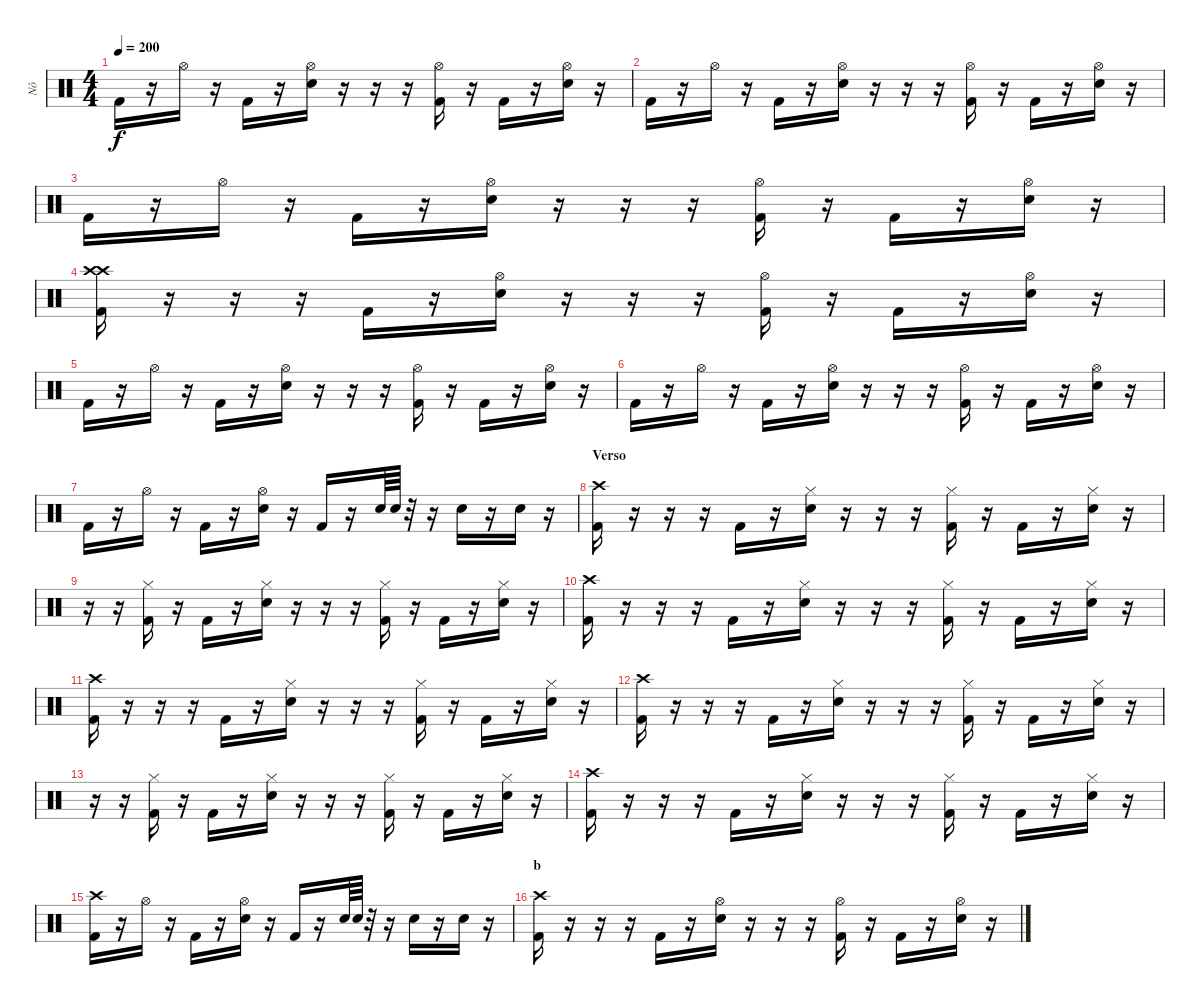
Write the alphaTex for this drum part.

\track ("Nô" "Nô") {instrument percussion}
\staff {score}
\articulation defaults
\ts (4 4)
\tempo 200
\clef neutral
\ks c "Kick (hit) 2".16{dy f}
r.16 "Hi-Hat (open)".16 r.16 "Kick (hit) 2".16 r.16 ("Hi-Hat (open)" "Electric Snare (hit)").16 r.16 r.16 r.16 ("Hi-Hat (open)" "Kick (hit) 2").16 r.16 "Kick (hit) 2".16 r.16 ("Hi-Hat (open)" "Electric Snare (hit)").16 r.16 |
"Kick (hit) 2".16 r.16 "Hi-Hat (open)".16 r.16 "Kick (hit) 2".16 r.16 ("Hi-Hat (open)" "Electric Snare (hit)").16 r.16 r.16 r.16 ("Hi-Hat (open)" "Kick (hit) 2").16 r.16 "Kick (hit) 2".16 r.16 ("Hi-Hat (open)" "Electric Snare (hit)").16 r.16 |
"Kick (hit) 2".16 r.16 "Hi-Hat (open)".16 r.16 "Kick (hit) 2".16 r.16 ("Hi-Hat (open)" "Electric Snare (hit)").16 r.16 r.16 r.16 ("Hi-Hat (open)" "Kick (hit) 2").16 r.16 "Kick (hit) 2".16 r.16 ("Hi-Hat (open)" "Electric Snare (hit)").16 r.16 |
("Crash high (hit)" "Crash high (hit)" "Kick (hit) 2").16 r.16 r.16 r.16 "Kick (hit) 2".16 r.16 ("Hi-Hat (open)" "Electric Snare (hit)").16 r.16 r.16 r.16 ("Hi-Hat (open)" "Kick (hit) 2").16 r.16 "Kick (hit) 2".16 r.16 ("Hi-Hat (open)" "Electric Snare (hit)").16 r.16 |
"Kick (hit) 2".16 r.16 "Hi-Hat (open)".16 r.16 "Kick (hit) 2".16 r.16 ("Hi-Hat (open)" "Electric Snare (hit)").16 r.16 r.16 r.16 ("Hi-Hat (open)" "Kick (hit) 2").16 r.16 "Kick (hit) 2".16 r.16 ("Hi-Hat (open)" "Electric Snare (hit)").16 r.16 |
"Kick (hit) 2".16 r.16 "Hi-Hat (open)".16 r.16 "Kick (hit) 2".16 r.16 ("Hi-Hat (open)" "Electric Snare (hit)").16 r.16 r.16 r.16 ("Hi-Hat (open)" "Kick (hit) 2").16 r.16 "Kick (hit) 2".16 r.16 ("Hi-Hat (open)" "Electric Snare (hit)").16 r.16 |
"Kick (hit) 2".16 r.16 "Hi-Hat (open)".16 r.16 "Kick (hit) 2".16 r.16 ("Hi-Hat (open)" "Electric Snare (hit)").16 r.16 "Kick (hit) 2".16 r.16 "Electric Snare (hit)".64 "Electric Snare (hit)".64 r.32 r.16 "Electric Snare (hit)".16 r.16 "Electric Snare (hit)".16 r.16 |
\section ("" "Verso")
("Crash high (hit)" "Kick (hit) 2").16 r.16 r.16 r.16 "Kick (hit) 2".16 r.16 ("Hi-Hat (closed)" "Electric Snare (hit)").16 r.16 r.16 r.16 ("Hi-Hat (closed)" "Kick (hit) 2").16 r.16 "Kick (hit) 2".16 r.16 ("Hi-Hat (closed)" "Electric Snare (hit)").16 r.16 |
r.16 r.16 ("Hi-Hat (closed)" "Kick (hit) 2").16 r.16 "Kick (hit) 2".16 r.16 ("Hi-Hat (closed)" "Electric Snare (hit)").16 r.16 r.16 r.16 ("Hi-Hat (closed)" "Kick (hit) 2").16 r.16 "Kick (hit) 2".16 r.16 ("Hi-Hat (closed)" "Electric Snare (hit)").16 r.16 |
("Crash high (hit)" "Kick (hit) 2").16 r.16 r.16 r.16 "Kick (hit) 2".16 r.16 ("Hi-Hat (closed)" "Electric Snare (hit)").16 r.16 r.16 r.16 ("Hi-Hat (closed)" "Kick (hit) 2").16 r.16 "Kick (hit) 2".16 r.16 ("Hi-Hat (closed)" "Electric Snare (hit)").16 r.16 |
("Crash high (hit)" "Kick (hit) 2").16 r.16 r.16 r.16 "Kick (hit) 2".16 r.16 ("Hi-Hat (closed)" "Electric Snare (hit)").16 r.16 r.16 r.16 ("Hi-Hat (closed)" "Kick (hit) 2").16 r.16 "Kick (hit) 2".16 r.16 ("Hi-Hat (closed)" "Electric Snare (hit)").16 r.16 |
\section ("" ".")
("Crash high (hit)" "Kick (hit) 2").16 r.16 r.16 r.16 "Kick (hit) 2".16 r.16 ("Hi-Hat (closed)" "Electric Snare (hit)").16 r.16 r.16 r.16 ("Hi-Hat (closed)" "Kick (hit) 2").16 r.16 "Kick (hit) 2".16 r.16 ("Hi-Hat (closed)" "Electric Snare (hit)").16 r.16 |
r.16 r.16 ("Hi-Hat (closed)" "Kick (hit) 2").16 r.16 "Kick (hit) 2".16 r.16 ("Hi-Hat (closed)" "Electric Snare (hit)").16 r.16 r.16 r.16 ("Hi-Hat (closed)" "Kick (hit) 2").16 r.16 "Kick (hit) 2".16 r.16 ("Hi-Hat (closed)" "Electric Snare (hit)").16 r.16 |
("Crash high (hit)" "Kick (hit) 2").16 r.16 r.16 r.16 "Kick (hit) 2".16 r.16 ("Hi-Hat (closed)" "Electric Snare (hit)").16 r.16 r.16 r.16 ("Hi-Hat (closed)" "Kick (hit) 2").16 r.16 "Kick (hit) 2".16 r.16 ("Hi-Hat (closed)" "Electric Snare (hit)").16 r.16 |
("Crash high (hit)" "Kick (hit) 2").16 r.16 "Hi-Hat (open)".16 r.16 "Kick (hit) 2".16 r.16 ("Hi-Hat (open)" "Electric Snare (hit)").16 r.16 "Kick (hit) 2".16 r.16 "Electric Snare (hit)".64 "Electric Snare (hit)".64 r.32 r.16 "Electric Snare (hit)".16 r.16 "Electric Snare (hit)".16 r.16 |
\section ("" "b")
("Crash high (hit)" "Kick (hit) 2").16 r.16 r.16 r.16 "Kick (hit) 2".16 r.16 ("Hi-Hat (open)" "Electric Snare (hit)").16 r.16 r.16 r.16 ("Hi-Hat (open)" "Kick (hit) 2").16 r.16 "Kick (hit) 2".16 r.16 ("Hi-Hat (open)" "Electric Snare (hit)").16 r.16
